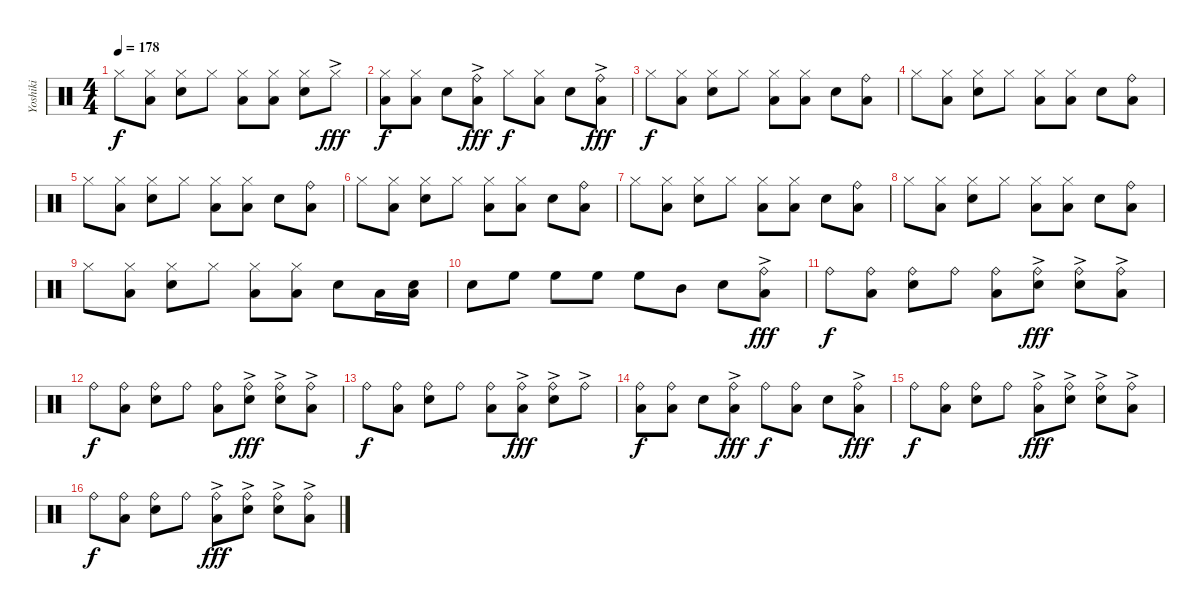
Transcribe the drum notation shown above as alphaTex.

\track ("Yoshiki" "Yoshiki") {instrument percussion}
\staff {score}
\articulation defaults
\ts (4 4)
\tempo 178
\clef neutral
\ks c "Hi-Hat (closed)".8{dy f}
("Hi-Hat (closed)" "Low Floor Tom (hit)").8 ("Hi-Hat (closed)" "Snare (hit) 2").8 "Hi-Hat (closed)".8 ("Hi-Hat (closed)" "Low Floor Tom (hit)").8 ("Hi-Hat (closed)" "Low Floor Tom (hit)").8 ("Hi-Hat (closed)" "Snare (hit) 2").8 "Hi-Hat (closed)"{ac}.8{dy fff} |
("Hi-Hat (closed)" "Low Floor Tom (hit)").8{dy f} ("Hi-Hat (closed)" "Low Floor Tom (hit)").8 "Snare (hit) 2".8 ("Ride (bell)"{ac} "Low Floor Tom (hit)").8{dy fff} "Hi-Hat (closed)".8{dy f} ("Hi-Hat (closed)" "Low Floor Tom (hit)").8 "Snare (hit) 2".8 ("Ride (bell)"{ac} "Low Floor Tom (hit)").8{dy fff} |
"Hi-Hat (closed)".8{dy f} ("Hi-Hat (closed)" "Low Floor Tom (hit)").8 ("Hi-Hat (closed)" "Snare (hit) 2").8 "Hi-Hat (closed)".8 ("Hi-Hat (closed)" "Low Floor Tom (hit)").8 ("Hi-Hat (closed)" "Low Floor Tom (hit)").8 "Snare (hit) 2".8 ("Ride (bell)" "Low Floor Tom (hit)").8 |
"Hi-Hat (closed)".8 ("Hi-Hat (closed)" "Low Floor Tom (hit)").8 ("Hi-Hat (closed)" "Snare (hit) 2").8 "Hi-Hat (closed)".8 ("Hi-Hat (closed)" "Low Floor Tom (hit)").8 ("Hi-Hat (closed)" "Low Floor Tom (hit)").8 "Snare (hit) 2".8 ("Ride (bell)" "Low Floor Tom (hit)").8 |
"Hi-Hat (closed)".8 ("Hi-Hat (closed)" "Low Floor Tom (hit)").8 ("Hi-Hat (closed)" "Snare (hit) 2").8 "Hi-Hat (closed)".8 ("Hi-Hat (closed)" "Low Floor Tom (hit)").8 ("Hi-Hat (closed)" "Low Floor Tom (hit)").8 "Snare (hit) 2".8 ("Ride (bell)" "Low Floor Tom (hit)").8 |
"Hi-Hat (closed)".8 ("Hi-Hat (closed)" "Low Floor Tom (hit)").8 ("Hi-Hat (closed)" "Snare (hit) 2").8 "Hi-Hat (closed)".8 ("Hi-Hat (closed)" "Low Floor Tom (hit)").8 ("Hi-Hat (closed)" "Low Floor Tom (hit)").8 "Snare (hit) 2".8 ("Ride (bell)" "Low Floor Tom (hit)").8 |
"Hi-Hat (closed)".8 ("Hi-Hat (closed)" "Low Floor Tom (hit)").8 ("Hi-Hat (closed)" "Snare (hit) 2").8 "Hi-Hat (closed)".8 ("Hi-Hat (closed)" "Low Floor Tom (hit)").8 ("Hi-Hat (closed)" "Low Floor Tom (hit)").8 "Snare (hit) 2".8 ("Ride (bell)" "Low Floor Tom (hit)").8 |
"Hi-Hat (closed)".8 ("Hi-Hat (closed)" "Low Floor Tom (hit)").8 ("Hi-Hat (closed)" "Snare (hit) 2").8 "Hi-Hat (closed)".8 ("Hi-Hat (closed)" "Low Floor Tom (hit)").8 ("Hi-Hat (closed)" "Low Floor Tom (hit)").8 "Snare (hit) 2".8 ("Ride (bell)" "Low Floor Tom (hit)").8 |
"Hi-Hat (closed)".8 ("Hi-Hat (closed)" "Low Floor Tom (hit)").8 ("Hi-Hat (closed)" "Snare (hit) 2").8 "Hi-Hat (closed)".8 ("Hi-Hat (closed)" "Low Floor Tom (hit)").8 ("Hi-Hat (closed)" "Low Floor Tom (hit)").8 "Snare (hit) 2".8 "Low Floor Tom (hit)".16 ("Snare (hit) 2" "Low Floor Tom (hit)").16 |
"Snare (hit) 2".8 "High Floor Tom (hit)".8 "High Floor Tom (hit)".8 "High Floor Tom (hit)".8 "High Floor Tom (hit)".8 "Mid Tom (hit)".8 "Snare (hit) 2".8 ("Ride (bell)"{ac} "Low Floor Tom (hit)").8{dy fff} |
"Ride (bell)".8{dy f} ("Ride (bell)" "Low Floor Tom (hit)").8 ("Ride (bell)" "Snare (hit) 2").8 "Ride (bell)".8 ("Ride (bell)" "Low Floor Tom (hit)").8 ("Ride (bell)"{ac} "Snare (hit) 2").8{dy fff} ("Ride (bell)"{ac} "Snare (hit) 2").8 ("Ride (bell)"{ac} "Low Floor Tom (hit)").8 |
"Ride (bell)".8{dy f} ("Ride (bell)" "Low Floor Tom (hit)").8 ("Ride (bell)" "Snare (hit) 2").8 "Ride (bell)".8 ("Ride (bell)" "Low Floor Tom (hit)").8 ("Ride (bell)"{ac} "Snare (hit) 2").8{dy fff} ("Ride (bell)"{ac} "Snare (hit) 2").8 ("Ride (bell)"{ac} "Low Floor Tom (hit)").8 |
"Ride (bell)".8{dy f} ("Ride (bell)" "Low Floor Tom (hit)").8 ("Ride (bell)" "Snare (hit) 2").8 "Ride (bell)".8 ("Ride (bell)" "Low Floor Tom (hit)").8 ("Ride (bell)"{ac} "Low Floor Tom (hit)").8{dy fff} ("Ride (bell)"{ac} "Snare (hit) 2").8 "Ride (bell)"{ac}.8 |
("Ride (bell)" "Low Floor Tom (hit)").8{dy f} ("Ride (bell)" "Low Floor Tom (hit)").8 "Snare (hit) 2".8 ("Ride (bell)"{ac} "Low Floor Tom (hit)").8{dy fff} "Ride (bell)".8{dy f} ("Ride (bell)" "Low Floor Tom (hit)").8 "Snare (hit) 2".8 ("Ride (bell)"{ac} "Low Floor Tom (hit)").8{dy fff} |
"Ride (bell)".8{dy f} ("Ride (bell)" "Low Floor Tom (hit)").8 ("Ride (bell)" "Snare (hit) 2").8 "Ride (bell)".8 ("Ride (bell)"{ac} "Low Floor Tom (hit)").8{dy fff} ("Ride (bell)"{ac} "Snare (hit) 2").8 ("Ride (bell)"{ac} "Snare (hit) 2").8 ("Ride (bell)"{ac} "Low Floor Tom (hit)").8 |
"Ride (bell)".8{dy f} ("Ride (bell)" "Low Floor Tom (hit)").8 ("Ride (bell)" "Snare (hit) 2").8 "Ride (bell)".8 ("Ride (bell)"{ac} "Low Floor Tom (hit)").8{dy fff} ("Ride (bell)"{ac} "Snare (hit) 2").8 ("Ride (bell)"{ac} "Snare (hit) 2").8 ("Ride (bell)"{ac} "Low Floor Tom (hit)").8
